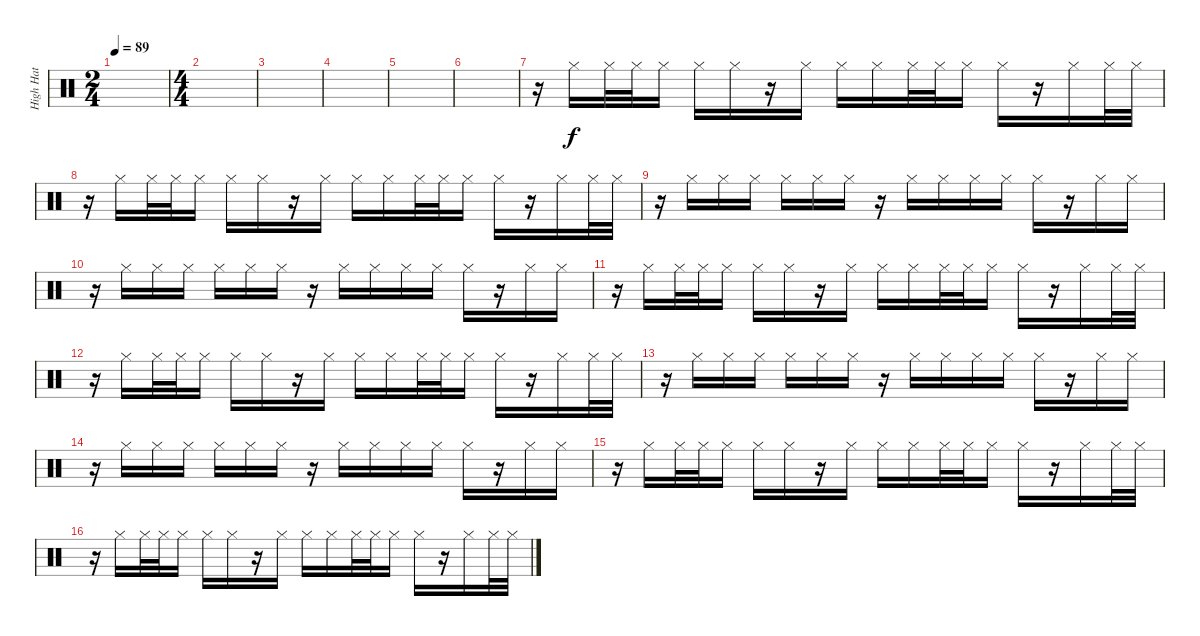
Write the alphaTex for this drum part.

\track ("High Hat" "High Hat") {instrument percussion}
\staff {score}
\articulation defaults
\ts (2 4)
\tempo 89
\clef neutral
\ks c
|
\ts (4 4)
|
|
|
|
|
r.16 "Hi-Hat (closed)".16 "Hi-Hat (closed)".32 "Hi-Hat (closed)".32 "Hi-Hat (closed)".16 "Hi-Hat (closed)".16 "Hi-Hat (closed)".16 r.16 "Hi-Hat (closed)".16 "Hi-Hat (closed)".16 "Hi-Hat (closed)".16 "Hi-Hat (closed)".32 "Hi-Hat (closed)".32 "Hi-Hat (closed)".16 "Hi-Hat (closed)".16 r.16 "Hi-Hat (closed)".16 "Hi-Hat (closed)".32 "Hi-Hat (closed)".32 |
r.16 "Hi-Hat (closed)".16 "Hi-Hat (closed)".32 "Hi-Hat (closed)".32 "Hi-Hat (closed)".16 "Hi-Hat (closed)".16 "Hi-Hat (closed)".16 r.16 "Hi-Hat (closed)".16 "Hi-Hat (closed)".16 "Hi-Hat (closed)".16 "Hi-Hat (closed)".32 "Hi-Hat (closed)".32 "Hi-Hat (closed)".16 "Hi-Hat (closed)".16 r.16 "Hi-Hat (closed)".16 "Hi-Hat (closed)".32 "Hi-Hat (closed)".32 |
r.16 "Hi-Hat (closed)".16 "Hi-Hat (closed)".16 "Hi-Hat (closed)".16 "Hi-Hat (closed)".16 "Hi-Hat (closed)".16 "Hi-Hat (closed)".16 r.16 "Hi-Hat (closed)".16 "Hi-Hat (closed)".16 "Hi-Hat (closed)".16 "Hi-Hat (closed)".16 "Hi-Hat (closed)".16 r.16 "Hi-Hat (closed)".16 "Hi-Hat (closed)".16 |
r.16 "Hi-Hat (closed)".16 "Hi-Hat (closed)".16 "Hi-Hat (closed)".16 "Hi-Hat (closed)".16 "Hi-Hat (closed)".16 "Hi-Hat (closed)".16 r.16 "Hi-Hat (closed)".16 "Hi-Hat (closed)".16 "Hi-Hat (closed)".16 "Hi-Hat (closed)".16 "Hi-Hat (closed)".16 r.16 "Hi-Hat (closed)".16 "Hi-Hat (closed)".16 |
r.16 "Hi-Hat (closed)".16 "Hi-Hat (closed)".32 "Hi-Hat (closed)".32 "Hi-Hat (closed)".16 "Hi-Hat (closed)".16 "Hi-Hat (closed)".16 r.16 "Hi-Hat (closed)".16 "Hi-Hat (closed)".16 "Hi-Hat (closed)".16 "Hi-Hat (closed)".32 "Hi-Hat (closed)".32 "Hi-Hat (closed)".16 "Hi-Hat (closed)".16 r.16 "Hi-Hat (closed)".16 "Hi-Hat (closed)".32 "Hi-Hat (closed)".32 |
r.16 "Hi-Hat (closed)".16 "Hi-Hat (closed)".32 "Hi-Hat (closed)".32 "Hi-Hat (closed)".16 "Hi-Hat (closed)".16 "Hi-Hat (closed)".16 r.16 "Hi-Hat (closed)".16 "Hi-Hat (closed)".16 "Hi-Hat (closed)".16 "Hi-Hat (closed)".32 "Hi-Hat (closed)".32 "Hi-Hat (closed)".16 "Hi-Hat (closed)".16 r.16 "Hi-Hat (closed)".16 "Hi-Hat (closed)".32 "Hi-Hat (closed)".32 |
r.16 "Hi-Hat (closed)".16 "Hi-Hat (closed)".16 "Hi-Hat (closed)".16 "Hi-Hat (closed)".16 "Hi-Hat (closed)".16 "Hi-Hat (closed)".16 r.16 "Hi-Hat (closed)".16 "Hi-Hat (closed)".16 "Hi-Hat (closed)".16 "Hi-Hat (closed)".16 "Hi-Hat (closed)".16 r.16 "Hi-Hat (closed)".16 "Hi-Hat (closed)".16 |
r.16 "Hi-Hat (closed)".16 "Hi-Hat (closed)".16 "Hi-Hat (closed)".16 "Hi-Hat (closed)".16 "Hi-Hat (closed)".16 "Hi-Hat (closed)".16 r.16 "Hi-Hat (closed)".16 "Hi-Hat (closed)".16 "Hi-Hat (closed)".16 "Hi-Hat (closed)".16 "Hi-Hat (closed)".16 r.16 "Hi-Hat (closed)".16 "Hi-Hat (closed)".16 |
r.16 "Hi-Hat (closed)".16 "Hi-Hat (closed)".32 "Hi-Hat (closed)".32 "Hi-Hat (closed)".16 "Hi-Hat (closed)".16 "Hi-Hat (closed)".16 r.16 "Hi-Hat (closed)".16 "Hi-Hat (closed)".16 "Hi-Hat (closed)".16 "Hi-Hat (closed)".32 "Hi-Hat (closed)".32 "Hi-Hat (closed)".16 "Hi-Hat (closed)".16 r.16 "Hi-Hat (closed)".16 "Hi-Hat (closed)".32 "Hi-Hat (closed)".32 |
r.16 "Hi-Hat (closed)".16 "Hi-Hat (closed)".32 "Hi-Hat (closed)".32 "Hi-Hat (closed)".16 "Hi-Hat (closed)".16 "Hi-Hat (closed)".16 r.16 "Hi-Hat (closed)".16 "Hi-Hat (closed)".16 "Hi-Hat (closed)".16 "Hi-Hat (closed)".32 "Hi-Hat (closed)".32 "Hi-Hat (closed)".16 "Hi-Hat (closed)".16 r.16 "Hi-Hat (closed)".16 "Hi-Hat (closed)".32 "Hi-Hat (closed)".32
